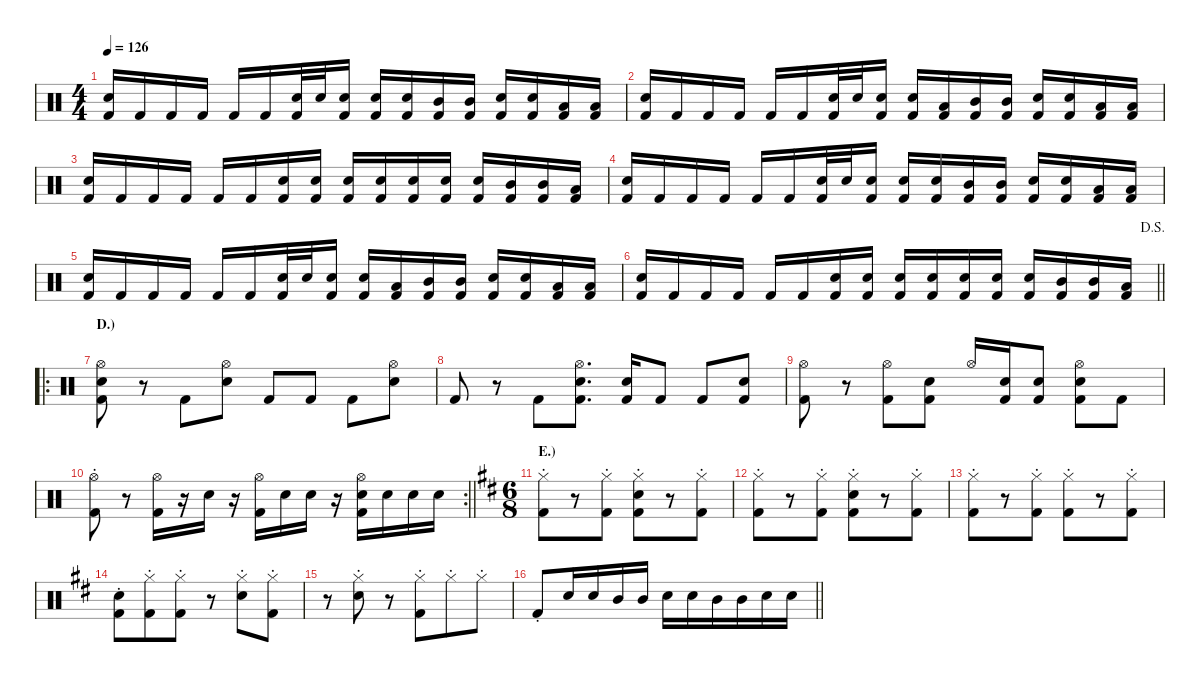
\defaultSystemsLayout 4
\hideDynamics
\bracketExtendMode nobrackets
\singleTrackTrackNamePolicy hidden
\multiTrackTrackNamePolicy hidden
\firstSystemTrackNameMode fullname
\firstSystemTrackNameOrientation horizontal
\otherSystemsTrackNameOrientation horizontal
\track ("Drums" "drm.") {instrument percussion}
\staff {score}
\articulation defaults
\ts (4 4)
\tempo 126
\clef neutral
\ks c
("Snare (hit) 2" "Kick (hit) 2").16{dy f beam Up} "Kick (hit) 2".16{beam Up} "Kick (hit) 2".16{beam Up} "Kick (hit) 2".16{beam Up} "Kick (hit) 2".16{beam Up} "Kick (hit) 2".16{beam Up} ("Snare (hit) 2" "Kick (hit) 2").32{beam Up} "Snare (hit) 2".32{beam Up} ("Snare (hit) 2" "Kick (hit) 2").16{beam Up} ("Snare (hit) 2" "Kick (hit) 2").16{beam Up} ("Snare (hit) 2" "Kick (hit) 2").16{beam Up} ("Mid Tom (hit)" "Kick (hit) 2").16{beam Up} ("Mid Tom (hit)" "Kick (hit) 2").16{beam Up} ("Snare (hit) 2" "Kick (hit) 2").16{beam Up} ("Snare (hit) 2" "Kick (hit) 2").16{beam Up} ("Low Tom (hit)" "Kick (hit) 2").16{beam Up} ("Low Tom (hit)" "Kick (hit) 2").16{beam Up} |
("Snare (hit) 2" "Kick (hit) 2").16{beam Up} "Kick (hit) 2".16{beam Up} "Kick (hit) 2".16{beam Up} "Kick (hit) 2".16{beam Up} "Kick (hit) 2".16{beam Up} "Kick (hit) 2".16{beam Up} ("Snare (hit) 2" "Kick (hit) 2").32{beam Up} "Snare (hit) 2".32{beam Up} ("Snare (hit) 2" "Kick (hit) 2").16{beam Up} ("Snare (hit) 2" "Kick (hit) 2").16{beam Up} ("Low Tom (hit)" "Kick (hit) 2").16{beam Up} ("Mid Tom (hit)" "Kick (hit) 2").16{beam Up} ("Mid Tom (hit)" "Kick (hit) 2").16{beam Up} ("Snare (hit) 2" "Kick (hit) 2").16{beam Up} ("Snare (hit) 2" "Kick (hit) 2").16{beam Up} ("Low Tom (hit)" "Kick (hit) 2").16{beam Up} ("Low Tom (hit)" "Kick (hit) 2").16{beam Up} |
("Snare (hit) 2" "Kick (hit) 2").16{beam Up} "Kick (hit) 2".16{beam Up} "Kick (hit) 2".16{beam Up} "Kick (hit) 2".16{beam Up} "Kick (hit) 2".16{beam Up} "Kick (hit) 2".16{beam Up} ("Snare (hit) 2" "Kick (hit) 2").16{dy mp beam Up} ("Snare (hit) 2" "Kick (hit) 2").16{beam Up} ("Snare (hit) 2" "Kick (hit) 2").16{dy mf beam Up} ("Snare (hit) 2" "Kick (hit) 2").16{beam Up} ("Snare (hit) 2" "Kick (hit) 2").16{dy f beam Up} ("Snare (hit) 2" "Kick (hit) 2").16{beam Up} ("Snare (hit) 2" "Kick (hit) 2").16{dy ff beam Up} ("Mid Tom (hit)" "Kick (hit) 2").16{beam Up} ("Mid Tom (hit)" "Kick (hit) 2").16{beam Up} ("Low Tom (hit)" "Kick (hit) 2").16{beam Up} |
("Snare (hit) 2" "Kick (hit) 2").16{dy f beam Up} "Kick (hit) 2".16{beam Up} "Kick (hit) 2".16{beam Up} "Kick (hit) 2".16{beam Up} "Kick (hit) 2".16{beam Up} "Kick (hit) 2".16{beam Up} ("Snare (hit) 2" "Kick (hit) 2").32{beam Up} "Snare (hit) 2".32{beam Up} ("Snare (hit) 2" "Kick (hit) 2").16{beam Up} ("Snare (hit) 2" "Kick (hit) 2").16{beam Up} ("Snare (hit) 2" "Kick (hit) 2").16{beam Up} ("Mid Tom (hit)" "Kick (hit) 2").16{beam Up} ("Mid Tom (hit)" "Kick (hit) 2").16{beam Up} ("Snare (hit) 2" "Kick (hit) 2").16{beam Up} ("Snare (hit) 2" "Kick (hit) 2").16{beam Up} ("Low Tom (hit)" "Kick (hit) 2").16{beam Up} ("Low Tom (hit)" "Kick (hit) 2").16{beam Up} |
("Snare (hit) 2" "Kick (hit) 2").16{beam Up} "Kick (hit) 2".16{beam Up} "Kick (hit) 2".16{beam Up} "Kick (hit) 2".16{beam Up} "Kick (hit) 2".16{beam Up} "Kick (hit) 2".16{beam Up} ("Snare (hit) 2" "Kick (hit) 2").32{beam Up} "Snare (hit) 2".32{beam Up} ("Snare (hit) 2" "Kick (hit) 2").16{beam Up} ("Snare (hit) 2" "Kick (hit) 2").16{beam Up} ("Low Tom (hit)" "Kick (hit) 2").16{beam Up} ("Mid Tom (hit)" "Kick (hit) 2").16{beam Up} ("Mid Tom (hit)" "Kick (hit) 2").16{beam Up} ("Snare (hit) 2" "Kick (hit) 2").16{beam Up} ("Snare (hit) 2" "Kick (hit) 2").16{beam Up} ("Low Tom (hit)" "Kick (hit) 2").16{beam Up} ("Low Tom (hit)" "Kick (hit) 2").16{beam Up} |
\jump dalsegno
\barLineRight lightlight
("Snare (hit) 2" "Kick (hit) 2").16{dy ff beam Up} "Kick (hit) 2".16{dy f beam Up} "Kick (hit) 2".16{beam Up} "Kick (hit) 2".16{beam Up} "Kick (hit) 2".16{beam Up} "Kick (hit) 2".16{beam Up} ("Snare (hit) 2" "Kick (hit) 2").16{dy ff beam Up} ("Snare (hit) 2" "Kick (hit) 2").16{dy p beam Up} ("Snare (hit) 2" "Kick (hit) 2").16{beam Up} ("Snare (hit) 2" "Kick (hit) 2").16{dy ff beam Up} ("Snare (hit) 2" "Kick (hit) 2").16{dy p beam Up} ("Snare (hit) 2" "Kick (hit) 2").16{beam Up} ("Snare (hit) 2" "Kick (hit) 2").16{dy ff beam Up} ("Mid Tom (hit)" "Kick (hit) 2").16{beam Up} ("Mid Tom (hit)" "Kick (hit) 2").16{beam Up} ("Low Tom (hit)" "Kick (hit) 2").16{beam Up} |
\ro
\section ("" "D.) ")
("Snare (hit) 2" "Hi-Hat (open)" "Kick (hit) 2").8{dy f beam Down} r.8{beam Down} "Kick (hit) 2".8{beam Down} ("Snare (hit) 2" "Hi-Hat (open)").8{beam Down} "Kick (hit) 2".8{beam Up} "Kick (hit) 2".8{beam Up} "Kick (hit) 2".8{beam Down} ("Snare (hit) 2" "Hi-Hat (open)").8{beam Down} |
"Kick (hit) 2".8{beam Up} r.8{beam Up} "Kick (hit) 2".8{beam Down} ("Snare (hit) 2" "Hi-Hat (open)" "Kick (hit) 2").8{d beam Down} ("Snare (hit) 2" "Kick (hit) 2").16{beam Up} "Kick (hit) 2".8{beam Up} "Kick (hit) 2".8{beam Up} ("Snare (hit) 2" "Kick (hit) 2").8{beam Up} |
("Hi-Hat (open)" "Kick (hit) 2").8{beam Down} r.8{beam Down} ("Hi-Hat (open)" "Kick (hit) 2").8{beam Down} ("Snare (hit) 2" "Kick (hit) 2").8{beam Down} "Hi-Hat (open)".16{beam Up} ("Snare (hit) 2" "Kick (hit) 2").16{beam Up} ("Snare (hit) 2" "Kick (hit) 2").8{beam Up} ("Snare (hit) 2" "Hi-Hat (open)" "Kick (hit) 2").8{beam Down} "Kick (hit) 2".8{beam Down} |
\rc 2
\barLineRight lightlight
("Hi-Hat (open)"{st} "Kick (hit) 2"{st}).8{beam Down} r.8{beam Down} ("Hi-Hat (open)" "Kick (hit) 2").16{beam Down} r.16{beam Down} "Snare (hit) 2".16{beam Down} r.16{beam Down} ("Hi-Hat (open)" "Kick (hit) 2").16{beam Down} "Snare (hit) 2".16{beam Down} "Snare (hit) 2".16{beam Down} r.16{beam Down} ("Snare (hit) 2" "Hi-Hat (open)" "Kick (hit) 2").16{beam Down} "Snare (hit) 2".16{beam Down} "Snare (hit) 2".16{beam Down} "Snare (hit) 2".16{beam Down} |
\ts (6 8)
\beaming (8 3 3)
\section ("" "E.) ")
\ks d
("Hi-Hat (closed)"{st acc forcenatural} "Kick (hit) 2"{st acc forcenatural}).8{beam Down} r.8{beam Down} ("Hi-Hat (closed)"{st acc forcenatural} "Kick (hit) 2"{st acc forcenatural}).8{beam Down} ("Snare (hit) 2"{st acc forcenatural} "Hi-Hat (closed)"{st acc forcenatural} "Kick (hit) 2"{st acc forcenatural}).8{beam Down} r.8{beam Down} ("Hi-Hat (closed)"{st acc forcenatural} "Kick (hit) 2"{st acc forcenatural}).8{beam Down} |
("Hi-Hat (closed)"{st acc forcenatural} "Kick (hit) 2"{st acc forcenatural}).8{beam Down} r.8{beam Down} ("Hi-Hat (closed)"{st acc forcenatural} "Kick (hit) 2"{st acc forcenatural}).8{beam Down} ("Snare (hit) 2"{st acc forcenatural} "Hi-Hat (closed)"{st acc forcenatural} "Kick (hit) 2"{st acc forcenatural}).8{beam Down} r.8{beam Down} ("Hi-Hat (closed)"{st acc forcenatural} "Kick (hit) 2"{st acc forcenatural}).8{beam Down} |
("Hi-Hat (closed)"{st acc forcenatural} "Kick (hit) 2"{st acc forcenatural}).8{beam Down} r.8{beam Down} ("Hi-Hat (closed)"{st acc forcenatural} "Kick (hit) 2"{st acc forcenatural}).8{beam Down} ("Hi-Hat (closed)"{st acc forcenatural} "Kick (hit) 2"{st acc forcenatural}).8{beam Down} r.8{beam Down} ("Hi-Hat (closed)"{st acc forcenatural} "Kick (hit) 2"{st acc forcenatural}).8{beam Down} |
("Snare (hit) 2"{acc forcenatural} "Kick (hit) 2"{st acc forcenatural}).8{beam Down} ("Hi-Hat (closed)"{st acc forcenatural} "Kick (hit) 2"{st acc forcenatural}).8{beam Down} ("Hi-Hat (closed)"{st acc forcenatural} "Kick (hit) 2"{st acc forcenatural}).8{beam Down} r.8{beam Down} ("Snare (hit) 2"{acc forcenatural} "Hi-Hat (closed)"{st acc forcenatural}).8{beam Down} ("Hi-Hat (closed)"{st acc forcenatural} "Kick (hit) 2"{st acc forcenatural}).8{beam Down} |
r.8{beam Down} ("Snare (hit) 2"{acc forcenatural} "Hi-Hat (closed)"{st acc forcenatural}).8{beam Down} r.8{beam Down} ("Hi-Hat (closed)"{st acc forcenatural} "Kick (hit) 2"{st acc forcenatural}).8{beam Down} "Hi-Hat (closed)"{st acc forcenatural}.8{beam Down} "Hi-Hat (closed)"{st acc forcenatural}.8{beam Down} |
\barLineRight lightlight "Kick (hit) 2"{st acc forcenatural}.8{beam Up} "Snare (hit) 2"{acc forcenatural}.16{beam Up} "Snare (hit) 2"{acc forcenatural}.16{beam Up} "Mid Tom (hit)"{acc forcenatural}.16{beam Up} "Mid Tom (hit)"{acc forcenatural}.16{beam Up} "Snare (hit) 2"{acc forcenatural}.16{beam Down} "Snare (hit) 2"{acc forcenatural}.16{beam Down} "Mid Tom (hit)"{acc forcenatural}.16{beam Down} "Mid Tom (hit)"{acc forcenatural}.16{beam Down} "Snare (hit) 2"{acc forcenatural}.16{beam Down} "Snare (hit) 2"{acc forcenatural}.16{beam Down}
